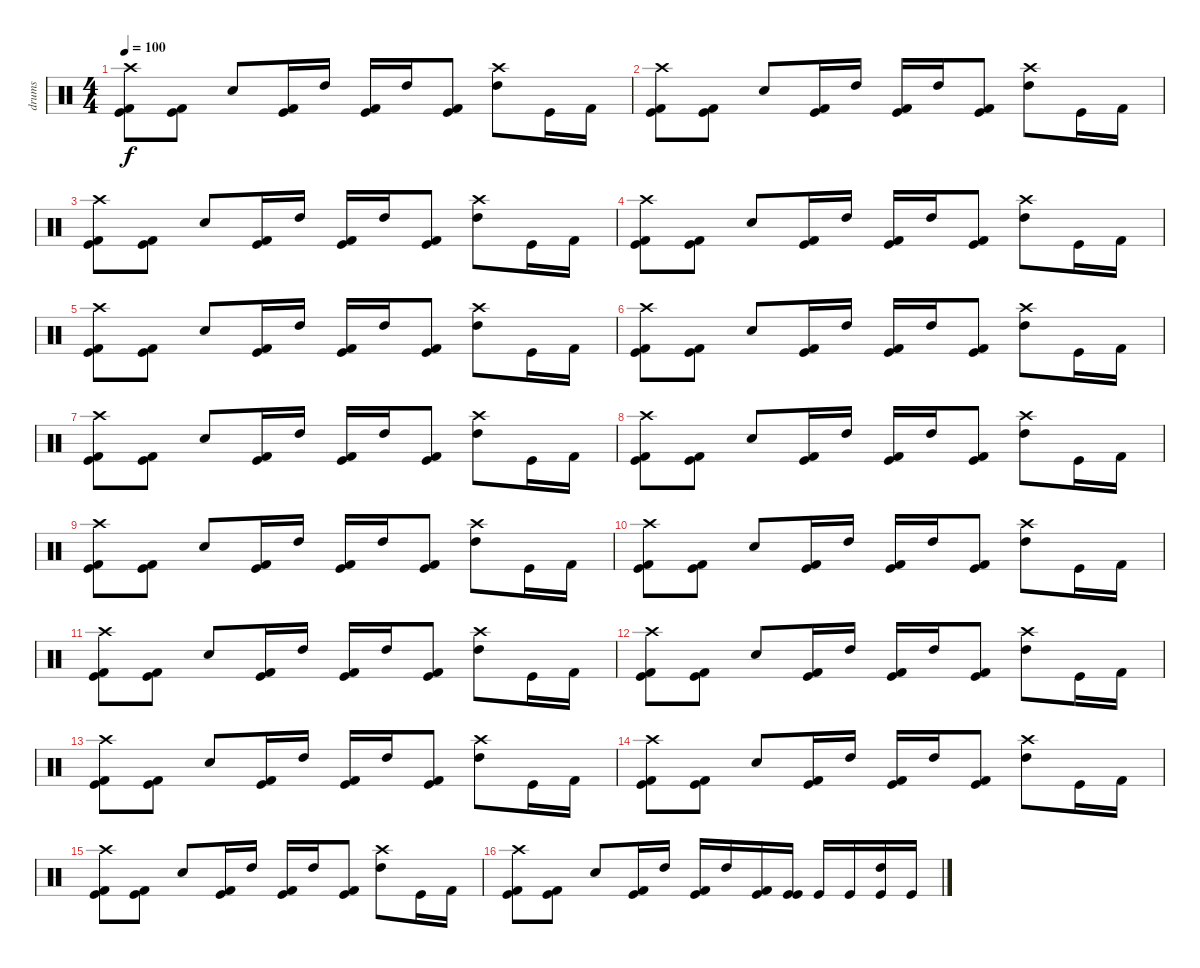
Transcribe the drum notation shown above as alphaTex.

\track ("drums" "drums") {instrument percussion}
\staff {score}
\articulation defaults
\ts (4 4)
\tempo 100
\clef neutral
\ks c
("Kick (hit) 2" "Kick (hit)" "Crash high (hit)").8{dy f} ("Kick (hit) 2" "Kick (hit)").8 "Snare (hit) 2".8 ("Kick (hit) 2" "Kick (hit)").16 "High Tom (hit)".16 ("Kick (hit) 2" "Kick (hit)").16 "High Tom (hit)".16 ("Kick (hit) 2" "Kick (hit)").8 ("High Tom (hit)" "Crash high (hit)").8 "Kick (hit)".16 "Kick (hit) 2".16 |
("Kick (hit) 2" "Kick (hit)" "Crash high (hit)").8 ("Kick (hit) 2" "Kick (hit)").8 "Snare (hit) 2".8 ("Kick (hit) 2" "Kick (hit)").16 "High Tom (hit)".16 ("Kick (hit) 2" "Kick (hit)").16 "High Tom (hit)".16 ("Kick (hit) 2" "Kick (hit)").8 ("High Tom (hit)" "Crash high (hit)").8 "Kick (hit)".16 "Kick (hit) 2".16 |
("Kick (hit) 2" "Kick (hit)" "Crash high (hit)").8 ("Kick (hit) 2" "Kick (hit)").8 "Snare (hit) 2".8 ("Kick (hit) 2" "Kick (hit)").16 "High Tom (hit)".16 ("Kick (hit) 2" "Kick (hit)").16 "High Tom (hit)".16 ("Kick (hit) 2" "Kick (hit)").8 ("High Tom (hit)" "Crash high (hit)").8 "Kick (hit)".16 "Kick (hit) 2".16 |
("Kick (hit) 2" "Kick (hit)" "Crash high (hit)").8 ("Kick (hit) 2" "Kick (hit)").8 "Snare (hit) 2".8 ("Kick (hit) 2" "Kick (hit)").16 "High Tom (hit)".16 ("Kick (hit) 2" "Kick (hit)").16 "High Tom (hit)".16 ("Kick (hit) 2" "Kick (hit)").8 ("High Tom (hit)" "Crash high (hit)").8 "Kick (hit)".16 "Kick (hit) 2".16 |
("Kick (hit) 2" "Kick (hit)" "Crash high (hit)").8 ("Kick (hit) 2" "Kick (hit)").8 "Snare (hit) 2".8 ("Kick (hit) 2" "Kick (hit)").16 "High Tom (hit)".16 ("Kick (hit) 2" "Kick (hit)").16 "High Tom (hit)".16 ("Kick (hit) 2" "Kick (hit)").8 ("High Tom (hit)" "Crash high (hit)").8 "Kick (hit)".16 "Kick (hit) 2".16 |
("Kick (hit) 2" "Kick (hit)" "Crash high (hit)").8 ("Kick (hit) 2" "Kick (hit)").8 "Snare (hit) 2".8 ("Kick (hit) 2" "Kick (hit)").16 "High Tom (hit)".16 ("Kick (hit) 2" "Kick (hit)").16 "High Tom (hit)".16 ("Kick (hit) 2" "Kick (hit)").8 ("High Tom (hit)" "Crash high (hit)").8 "Kick (hit)".16 "Kick (hit) 2".16 |
("Kick (hit) 2" "Kick (hit)" "Crash high (hit)").8 ("Kick (hit) 2" "Kick (hit)").8 "Snare (hit) 2".8 ("Kick (hit) 2" "Kick (hit)").16 "High Tom (hit)".16 ("Kick (hit) 2" "Kick (hit)").16 "High Tom (hit)".16 ("Kick (hit) 2" "Kick (hit)").8 ("High Tom (hit)" "Crash high (hit)").8 "Kick (hit)".16 "Kick (hit) 2".16 |
("Kick (hit) 2" "Kick (hit)" "Crash high (hit)").8 ("Kick (hit) 2" "Kick (hit)").8 "Snare (hit) 2".8 ("Kick (hit) 2" "Kick (hit)").16 "High Tom (hit)".16 ("Kick (hit) 2" "Kick (hit)").16 "High Tom (hit)".16 ("Kick (hit) 2" "Kick (hit)").8 ("High Tom (hit)" "Crash high (hit)").8 "Kick (hit)".16 "Kick (hit) 2".16 |
("Kick (hit) 2" "Kick (hit)" "Crash high (hit)").8 ("Kick (hit) 2" "Kick (hit)").8 "Snare (hit) 2".8 ("Kick (hit) 2" "Kick (hit)").16 "High Tom (hit)".16 ("Kick (hit) 2" "Kick (hit)").16 "High Tom (hit)".16 ("Kick (hit) 2" "Kick (hit)").8 ("High Tom (hit)" "Crash high (hit)").8 "Kick (hit)".16 "Kick (hit) 2".16 |
("Kick (hit) 2" "Kick (hit)" "Crash high (hit)").8 ("Kick (hit) 2" "Kick (hit)").8 "Snare (hit) 2".8 ("Kick (hit) 2" "Kick (hit)").16 "High Tom (hit)".16 ("Kick (hit) 2" "Kick (hit)").16 "High Tom (hit)".16 ("Kick (hit) 2" "Kick (hit)").8 ("High Tom (hit)" "Crash high (hit)").8 "Kick (hit)".16 "Kick (hit) 2".16 |
("Kick (hit) 2" "Kick (hit)" "Crash high (hit)").8 ("Kick (hit) 2" "Kick (hit)").8 "Snare (hit) 2".8 ("Kick (hit) 2" "Kick (hit)").16 "High Tom (hit)".16 ("Kick (hit) 2" "Kick (hit)").16 "High Tom (hit)".16 ("Kick (hit) 2" "Kick (hit)").8 ("High Tom (hit)" "Crash high (hit)").8 "Kick (hit)".16 "Kick (hit) 2".16 |
("Kick (hit) 2" "Kick (hit)" "Crash high (hit)").8 ("Kick (hit) 2" "Kick (hit)").8 "Snare (hit) 2".8 ("Kick (hit) 2" "Kick (hit)").16 "High Tom (hit)".16 ("Kick (hit) 2" "Kick (hit)").16 "High Tom (hit)".16 ("Kick (hit) 2" "Kick (hit)").8 ("High Tom (hit)" "Crash high (hit)").8 "Kick (hit)".16 "Kick (hit) 2".16 |
("Kick (hit) 2" "Kick (hit)" "Crash high (hit)").8 ("Kick (hit) 2" "Kick (hit)").8 "Snare (hit) 2".8 ("Kick (hit) 2" "Kick (hit)").16 "High Tom (hit)".16 ("Kick (hit) 2" "Kick (hit)").16 "High Tom (hit)".16 ("Kick (hit) 2" "Kick (hit)").8 ("High Tom (hit)" "Crash high (hit)").8 "Kick (hit)".16 "Kick (hit) 2".16 |
("Kick (hit) 2" "Kick (hit)" "Crash high (hit)").8 ("Kick (hit) 2" "Kick (hit)").8 "Snare (hit) 2".8 ("Kick (hit) 2" "Kick (hit)").16 "High Tom (hit)".16 ("Kick (hit) 2" "Kick (hit)").16 "High Tom (hit)".16 ("Kick (hit) 2" "Kick (hit)").8 ("High Tom (hit)" "Crash high (hit)").8 "Kick (hit)".16 "Kick (hit) 2".16 |
("Kick (hit) 2" "Kick (hit)" "Crash high (hit)").8 ("Kick (hit) 2" "Kick (hit)").8 "Snare (hit) 2".8 ("Kick (hit) 2" "Kick (hit)").16 "High Tom (hit)".16 ("Kick (hit) 2" "Kick (hit)").16 "High Tom (hit)".16 ("Kick (hit) 2" "Kick (hit)").8 ("High Tom (hit)" "Crash high (hit)").8 "Kick (hit)".16 "Kick (hit) 2".16 |
("Kick (hit) 2" "Kick (hit)" "Crash high (hit)").8 ("Kick (hit) 2" "Kick (hit)").8 "Snare (hit) 2".8 ("Kick (hit) 2" "Kick (hit)").16 "High Tom (hit)".16 ("Kick (hit) 2" "Kick (hit)").16 "High Tom (hit)".16 ("Kick (hit) 2" "Kick (hit)").16 ("Kick (hit)" "Kick (hit)").16 "Kick (hit)".16 "Kick (hit)".16 ("High Tom (hit)" "Kick (hit)").16 "Kick (hit)".16
